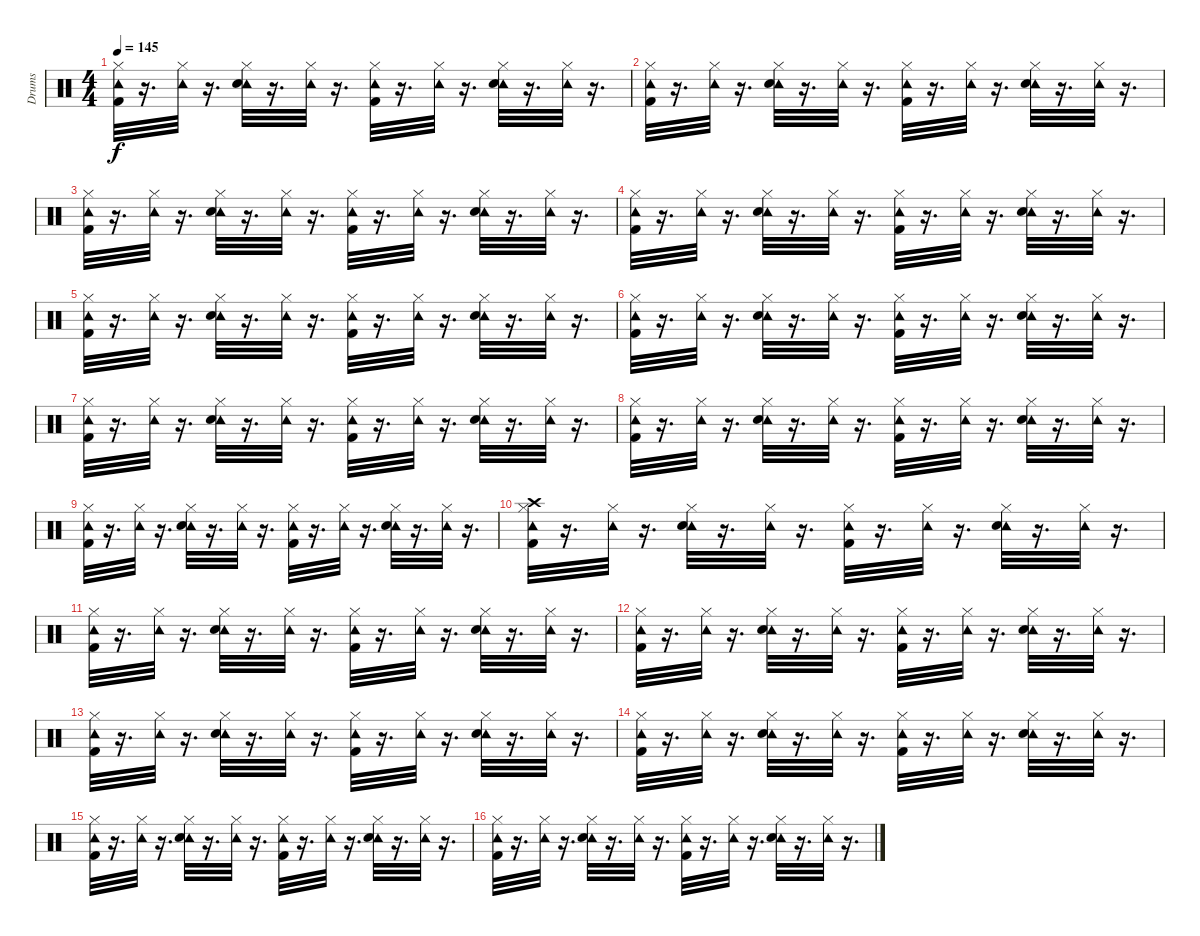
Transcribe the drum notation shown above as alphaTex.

\track ("Drums" "Drums") {instrument percussion}
\staff {score}
\articulation defaults
\ts (4 4)
\tempo 145
\clef neutral
\ks c
("Tambourine (hit)" "Kick (hit) 2" "Hi-Hat (closed)").32{dy f} r.16{d} ("Tambourine (hit)" "Hi-Hat (closed)").32 r.16{d} ("Tambourine (hit)" "Hi-Hat (closed)" "Snare (hit) 2").32 r.16{d} ("Tambourine (hit)" "Hi-Hat (closed)").32 r.16{d} ("Tambourine (hit)" "Kick (hit) 2" "Hi-Hat (closed)").32 r.16{d} ("Tambourine (hit)" "Hi-Hat (closed)").32 r.16{d} ("Tambourine (hit)" "Snare (hit) 2" "Hi-Hat (closed)").32 r.16{d} ("Tambourine (hit)" "Hi-Hat (closed)").32 r.16{d} |
("Tambourine (hit)" "Kick (hit) 2" "Hi-Hat (closed)").32 r.16{d} ("Tambourine (hit)" "Hi-Hat (closed)").32 r.16{d} ("Tambourine (hit)" "Hi-Hat (closed)" "Snare (hit) 2").32 r.16{d} ("Tambourine (hit)" "Hi-Hat (closed)").32 r.16{d} ("Tambourine (hit)" "Kick (hit) 2" "Hi-Hat (closed)").32 r.16{d} ("Tambourine (hit)" "Hi-Hat (closed)").32 r.16{d} ("Tambourine (hit)" "Snare (hit) 2" "Hi-Hat (closed)").32 r.16{d} ("Tambourine (hit)" "Hi-Hat (closed)").32 r.16{d} |
("Tambourine (hit)" "Kick (hit) 2" "Hi-Hat (closed)").32 r.16{d} ("Tambourine (hit)" "Hi-Hat (closed)").32 r.16{d} ("Tambourine (hit)" "Hi-Hat (closed)" "Snare (hit) 2").32 r.16{d} ("Tambourine (hit)" "Hi-Hat (closed)").32 r.16{d} ("Tambourine (hit)" "Kick (hit) 2" "Hi-Hat (closed)").32 r.16{d} ("Tambourine (hit)" "Hi-Hat (closed)").32 r.16{d} ("Tambourine (hit)" "Snare (hit) 2" "Hi-Hat (closed)").32 r.16{d} ("Tambourine (hit)" "Hi-Hat (closed)").32 r.16{d} |
("Tambourine (hit)" "Kick (hit) 2" "Hi-Hat (closed)").32 r.16{d} ("Tambourine (hit)" "Hi-Hat (closed)").32 r.16{d} ("Tambourine (hit)" "Hi-Hat (closed)" "Snare (hit) 2").32 r.16{d} ("Tambourine (hit)" "Hi-Hat (closed)").32 r.16{d} ("Tambourine (hit)" "Kick (hit) 2" "Hi-Hat (closed)").32 r.16{d} ("Tambourine (hit)" "Hi-Hat (closed)").32 r.16{d} ("Tambourine (hit)" "Snare (hit) 2" "Hi-Hat (closed)").32 r.16{d} ("Tambourine (hit)" "Hi-Hat (closed)").32 r.16{d} |
("Tambourine (hit)" "Kick (hit) 2" "Hi-Hat (closed)").32 r.16{d} ("Tambourine (hit)" "Hi-Hat (closed)").32 r.16{d} ("Tambourine (hit)" "Hi-Hat (closed)" "Snare (hit) 2").32 r.16{d} ("Tambourine (hit)" "Hi-Hat (closed)").32 r.16{d} ("Tambourine (hit)" "Kick (hit) 2" "Hi-Hat (closed)").32 r.16{d} ("Tambourine (hit)" "Hi-Hat (closed)").32 r.16{d} ("Tambourine (hit)" "Snare (hit) 2" "Hi-Hat (closed)").32 r.16{d} ("Tambourine (hit)" "Hi-Hat (closed)").32 r.16{d} |
("Tambourine (hit)" "Kick (hit) 2" "Hi-Hat (closed)").32 r.16{d} ("Tambourine (hit)" "Hi-Hat (closed)").32 r.16{d} ("Tambourine (hit)" "Hi-Hat (closed)" "Snare (hit) 2").32 r.16{d} ("Tambourine (hit)" "Hi-Hat (closed)").32 r.16{d} ("Tambourine (hit)" "Kick (hit) 2" "Hi-Hat (closed)").32 r.16{d} ("Tambourine (hit)" "Hi-Hat (closed)").32 r.16{d} ("Tambourine (hit)" "Snare (hit) 2" "Hi-Hat (closed)").32 r.16{d} ("Tambourine (hit)" "Hi-Hat (closed)").32 r.16{d} |
("Tambourine (hit)" "Kick (hit) 2" "Hi-Hat (closed)").32 r.16{d} ("Tambourine (hit)" "Hi-Hat (closed)").32 r.16{d} ("Tambourine (hit)" "Hi-Hat (closed)" "Snare (hit) 2").32 r.16{d} ("Tambourine (hit)" "Hi-Hat (closed)").32 r.16{d} ("Tambourine (hit)" "Kick (hit) 2" "Hi-Hat (closed)").32 r.16{d} ("Tambourine (hit)" "Hi-Hat (closed)").32 r.16{d} ("Tambourine (hit)" "Snare (hit) 2" "Hi-Hat (closed)").32 r.16{d} ("Tambourine (hit)" "Hi-Hat (closed)").32 r.16{d} |
("Tambourine (hit)" "Kick (hit) 2" "Hi-Hat (closed)").32 r.16{d} ("Tambourine (hit)" "Hi-Hat (closed)").32 r.16{d} ("Tambourine (hit)" "Hi-Hat (closed)" "Snare (hit) 2").32 r.16{d} ("Tambourine (hit)" "Hi-Hat (closed)").32 r.16{d} ("Tambourine (hit)" "Kick (hit) 2" "Hi-Hat (closed)").32 r.16{d} ("Tambourine (hit)" "Hi-Hat (closed)").32 r.16{d} ("Tambourine (hit)" "Snare (hit) 2" "Hi-Hat (closed)").32 r.16{d} ("Tambourine (hit)" "Hi-Hat (closed)").32 r.16{d} |
("Tambourine (hit)" "Kick (hit) 2" "Hi-Hat (closed)").32 r.16{d} ("Tambourine (hit)" "Hi-Hat (closed)").32 r.16{d} ("Tambourine (hit)" "Hi-Hat (closed)" "Snare (hit) 2").32 r.16{d} ("Tambourine (hit)" "Hi-Hat (closed)").32 r.16{d} ("Tambourine (hit)" "Kick (hit) 2" "Hi-Hat (closed)").32 r.16{d} ("Tambourine (hit)" "Hi-Hat (closed)").32 r.16{d} ("Tambourine (hit)" "Snare (hit) 2" "Hi-Hat (closed)").32 r.16{d} ("Tambourine (hit)" "Hi-Hat (closed)").32 r.16{d} |
("Tambourine (hit)" "Kick (hit) 2" "Hi-Hat (closed)" "Crash high (hit)").32 r.16{d} ("Tambourine (hit)" "Hi-Hat (closed)").32 r.16{d} ("Tambourine (hit)" "Hi-Hat (closed)" "Snare (hit) 2").32 r.16{d} ("Tambourine (hit)" "Hi-Hat (closed)").32 r.16{d} ("Tambourine (hit)" "Kick (hit) 2" "Hi-Hat (closed)").32 r.16{d} ("Tambourine (hit)" "Hi-Hat (closed)").32 r.16{d} ("Tambourine (hit)" "Snare (hit) 2" "Hi-Hat (closed)").32 r.16{d} ("Tambourine (hit)" "Hi-Hat (closed)").32 r.16{d} |
("Tambourine (hit)" "Kick (hit) 2" "Hi-Hat (closed)").32 r.16{d} ("Tambourine (hit)" "Hi-Hat (closed)").32 r.16{d} ("Tambourine (hit)" "Hi-Hat (closed)" "Snare (hit) 2").32 r.16{d} ("Tambourine (hit)" "Hi-Hat (closed)").32 r.16{d} ("Tambourine (hit)" "Kick (hit) 2" "Hi-Hat (closed)").32 r.16{d} ("Tambourine (hit)" "Hi-Hat (closed)").32 r.16{d} ("Tambourine (hit)" "Snare (hit) 2" "Hi-Hat (closed)").32 r.16{d} ("Tambourine (hit)" "Hi-Hat (closed)").32 r.16{d} |
("Tambourine (hit)" "Kick (hit) 2" "Hi-Hat (closed)").32 r.16{d} ("Tambourine (hit)" "Hi-Hat (closed)").32 r.16{d} ("Tambourine (hit)" "Hi-Hat (closed)" "Snare (hit) 2").32 r.16{d} ("Tambourine (hit)" "Hi-Hat (closed)").32 r.16{d} ("Tambourine (hit)" "Kick (hit) 2" "Hi-Hat (closed)").32 r.16{d} ("Tambourine (hit)" "Hi-Hat (closed)").32 r.16{d} ("Tambourine (hit)" "Snare (hit) 2" "Hi-Hat (closed)").32 r.16{d} ("Tambourine (hit)" "Hi-Hat (closed)").32 r.16{d} |
("Tambourine (hit)" "Kick (hit) 2" "Hi-Hat (closed)").32 r.16{d} ("Tambourine (hit)" "Hi-Hat (closed)").32 r.16{d} ("Tambourine (hit)" "Hi-Hat (closed)" "Snare (hit) 2").32 r.16{d} ("Tambourine (hit)" "Hi-Hat (closed)").32 r.16{d} ("Tambourine (hit)" "Kick (hit) 2" "Hi-Hat (closed)").32 r.16{d} ("Tambourine (hit)" "Hi-Hat (closed)").32 r.16{d} ("Tambourine (hit)" "Snare (hit) 2" "Hi-Hat (closed)").32 r.16{d} ("Tambourine (hit)" "Hi-Hat (closed)").32 r.16{d} |
("Tambourine (hit)" "Kick (hit) 2" "Hi-Hat (closed)").32 r.16{d} ("Tambourine (hit)" "Hi-Hat (closed)").32 r.16{d} ("Tambourine (hit)" "Hi-Hat (closed)" "Snare (hit) 2").32 r.16{d} ("Tambourine (hit)" "Hi-Hat (closed)").32 r.16{d} ("Tambourine (hit)" "Kick (hit) 2" "Hi-Hat (closed)").32 r.16{d} ("Tambourine (hit)" "Hi-Hat (closed)").32 r.16{d} ("Tambourine (hit)" "Snare (hit) 2" "Hi-Hat (closed)").32 r.16{d} ("Tambourine (hit)" "Hi-Hat (closed)").32 r.16{d} |
("Tambourine (hit)" "Kick (hit) 2" "Hi-Hat (closed)").32 r.16{d} ("Tambourine (hit)" "Hi-Hat (closed)").32 r.16{d} ("Tambourine (hit)" "Hi-Hat (closed)" "Snare (hit) 2").32 r.16{d} ("Tambourine (hit)" "Hi-Hat (closed)").32 r.16{d} ("Tambourine (hit)" "Kick (hit) 2" "Hi-Hat (closed)").32 r.16{d} ("Tambourine (hit)" "Hi-Hat (closed)").32 r.16{d} ("Tambourine (hit)" "Snare (hit) 2" "Hi-Hat (closed)").32 r.16{d} ("Tambourine (hit)" "Hi-Hat (closed)").32 r.16{d} |
("Tambourine (hit)" "Kick (hit) 2" "Hi-Hat (closed)").32 r.16{d} ("Tambourine (hit)" "Hi-Hat (closed)").32 r.16{d} ("Tambourine (hit)" "Hi-Hat (closed)" "Snare (hit) 2").32 r.16{d} ("Tambourine (hit)" "Hi-Hat (closed)").32 r.16{d} ("Tambourine (hit)" "Kick (hit) 2" "Hi-Hat (closed)").32 r.16{d} ("Tambourine (hit)" "Hi-Hat (closed)").32 r.16{d} ("Tambourine (hit)" "Snare (hit) 2" "Hi-Hat (closed)").32 r.16{d} ("Tambourine (hit)" "Hi-Hat (closed)").32 r.16{d}
